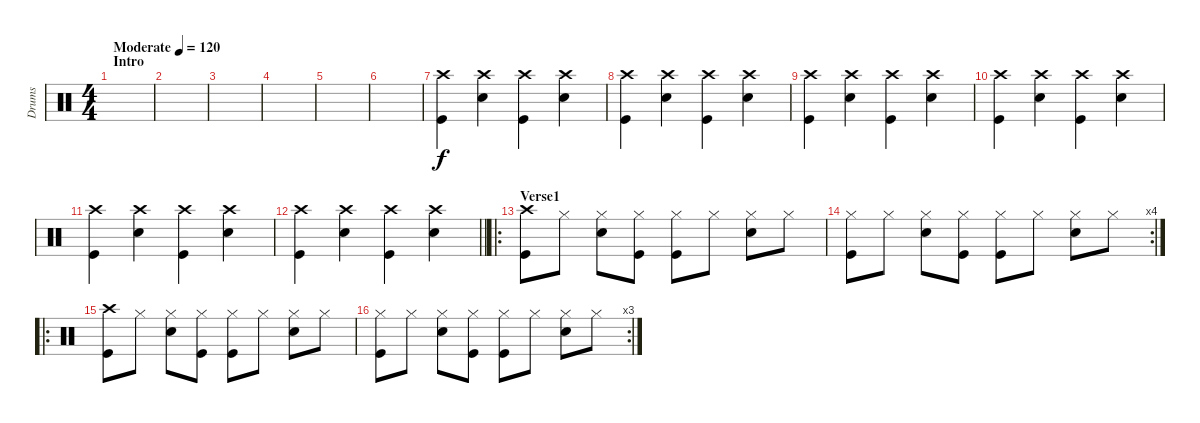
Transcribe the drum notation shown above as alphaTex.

\track ("Drums" "Drums") {instrument percussion}
\staff {score}
\articulation defaults
\ts (4 4)
\section ("" "Intro")
\tempo (120 "Moderate")
\clef neutral
\ks c
|
|
|
|
|
|
("Crash high (hit)" "Kick (hit)").4 ("Crash high (hit)" "Snare (hit) 2").4 ("Crash high (hit)" "Kick (hit)").4 ("Crash high (hit)" "Snare (hit) 2").4 |
("Crash high (hit)" "Kick (hit)").4 ("Crash high (hit)" "Snare (hit) 2").4 ("Crash high (hit)" "Kick (hit)").4 ("Crash high (hit)" "Snare (hit) 2").4 |
("Crash high (hit)" "Kick (hit)").4 ("Crash high (hit)" "Snare (hit) 2").4 ("Crash high (hit)" "Kick (hit)").4 ("Crash high (hit)" "Snare (hit) 2").4 |
("Crash high (hit)" "Kick (hit)").4 ("Crash high (hit)" "Snare (hit) 2").4 ("Crash high (hit)" "Kick (hit)").4 ("Crash high (hit)" "Snare (hit) 2").4 |
("Crash high (hit)" "Kick (hit)").4 ("Crash high (hit)" "Snare (hit) 2").4 ("Crash high (hit)" "Kick (hit)").4 ("Crash high (hit)" "Snare (hit) 2").4 |
\barLineRight lightlight
("Crash high (hit)" "Kick (hit)").4 ("Crash high (hit)" "Snare (hit) 2").4 ("Crash high (hit)" "Kick (hit)").4 ("Crash high (hit)" "Snare (hit) 2").4 |
\ro
\section ("" "Verse1")
("Crash high (hit)" "Kick (hit)").8 "Hi-Hat (closed)".8 ("Snare (hit) 2" "Hi-Hat (closed)").8 ("Hi-Hat (closed)" "Kick (hit)").8 ("Hi-Hat (closed)" "Kick (hit)").8 "Hi-Hat (closed)".8 ("Snare (hit) 2" "Hi-Hat (closed)").8 "Hi-Hat (closed)".8 |
\rc 4
("Hi-Hat (closed)" "Kick (hit)").8 "Hi-Hat (closed)".8 ("Snare (hit) 2" "Hi-Hat (closed)").8 ("Hi-Hat (closed)" "Kick (hit)").8 ("Hi-Hat (closed)" "Kick (hit)").8 "Hi-Hat (closed)".8 ("Snare (hit) 2" "Hi-Hat (closed)").8 "Hi-Hat (closed)".8 |
\ro
("Crash high (hit)" "Kick (hit)").8 "Hi-Hat (closed)".8 ("Snare (hit) 2" "Hi-Hat (closed)").8 ("Hi-Hat (closed)" "Kick (hit)").8 ("Hi-Hat (closed)" "Kick (hit)").8 "Hi-Hat (closed)".8 ("Snare (hit) 2" "Hi-Hat (closed)").8 "Hi-Hat (closed)".8 |
\rc 3
("Hi-Hat (closed)" "Kick (hit)").8 "Hi-Hat (closed)".8 ("Snare (hit) 2" "Hi-Hat (closed)").8 ("Hi-Hat (closed)" "Kick (hit)").8 ("Hi-Hat (closed)" "Kick (hit)").8 "Hi-Hat (closed)".8 ("Snare (hit) 2" "Hi-Hat (closed)").8 "Hi-Hat (closed)".8
